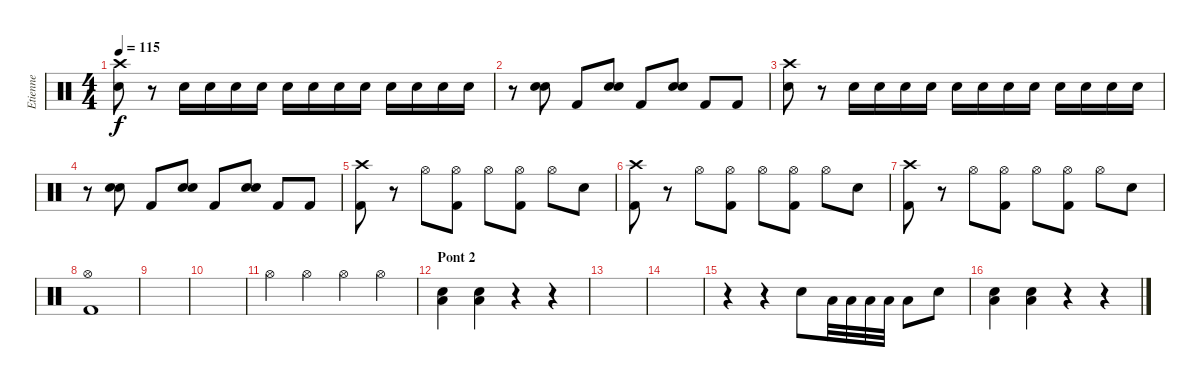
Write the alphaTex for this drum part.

\track ("Etienne" "Etienne") {instrument percussion}
\staff {score}
\articulation defaults
\ts (4 4)
\tempo 115
\clef neutral
\ks c
("Crash high (hit)" "Electric Snare (hit)").8{dy f} r.8 "Electric Snare (hit)".16 "Electric Snare (hit)".16 "Electric Snare (hit)".16 "Electric Snare (hit)".16 "Electric Snare (hit)".16 "Electric Snare (hit)".16 "Electric Snare (hit)".16 "Electric Snare (hit)".16 "Electric Snare (hit)".16 "Electric Snare (hit)".16 "Electric Snare (hit)".16 "Electric Snare (hit)".16 |
r.8 ("Electric Snare (hit)" "Electric Snare (hit)").8 "Kick (hit) 2".8 ("Electric Snare (hit)" "Electric Snare (hit)").8 "Kick (hit) 2".8 ("Electric Snare (hit)" "Electric Snare (hit)").8 "Kick (hit) 2".8 "Kick (hit) 2".8 |
("Crash high (hit)" "Electric Snare (hit)").8 r.8 "Electric Snare (hit)".16 "Electric Snare (hit)".16 "Electric Snare (hit)".16 "Electric Snare (hit)".16 "Electric Snare (hit)".16 "Electric Snare (hit)".16 "Electric Snare (hit)".16 "Electric Snare (hit)".16 "Electric Snare (hit)".16 "Electric Snare (hit)".16 "Electric Snare (hit)".16 "Electric Snare (hit)".16 |
r.8 ("Electric Snare (hit)" "Electric Snare (hit)").8 "Kick (hit) 2".8 ("Electric Snare (hit)" "Electric Snare (hit)").8 "Kick (hit) 2".8 ("Electric Snare (hit)" "Electric Snare (hit)").8 "Kick (hit) 2".8 "Kick (hit) 2".8 |
("Crash high (hit)" "Kick (hit) 2").8 r.8 "Hi-Hat (open)".8 ("Hi-Hat (open)" "Kick (hit) 2").8 "Hi-Hat (open)".8 ("Hi-Hat (open)" "Kick (hit) 2").8 "Hi-Hat (open)".8 "Electric Snare (hit)".8 |
("Crash high (hit)" "Kick (hit) 2").8 r.8 "Hi-Hat (open)".8 ("Hi-Hat (open)" "Kick (hit) 2").8 "Hi-Hat (open)".8 ("Hi-Hat (open)" "Kick (hit) 2").8 "Hi-Hat (open)".8 "Electric Snare (hit)".8 |
("Crash high (hit)" "Kick (hit) 2").8 r.8 "Hi-Hat (open)".8 ("Hi-Hat (open)" "Kick (hit) 2").8 "Hi-Hat (open)".8 ("Hi-Hat (open)" "Kick (hit) 2").8 "Hi-Hat (open)".8 "Electric Snare (hit)".8 |
("Hi-Hat (open)" "Kick (hit) 2").1 |
|
|
"Hi-Hat (open)".4 "Hi-Hat (open)".4 "Hi-Hat (open)".4 "Hi-Hat (open)".4 |
\section ("" "Pont 2")
("Low Tom (hit)" "Electric Snare (hit)").4 ("Low Tom (hit)" "Electric Snare (hit)").4 r.4 r.4 |
|
|
r.4 r.4 "Electric Snare (hit)".8 "Low Tom (hit)".32 "Low Tom (hit)".32 "Low Tom (hit)".32 "Low Tom (hit)".32 "Low Tom (hit)".8 "Electric Snare (hit)".8 |
("Low Tom (hit)" "Electric Snare (hit)").4 ("Low Tom (hit)" "Electric Snare (hit)").4 r.4 r.4
